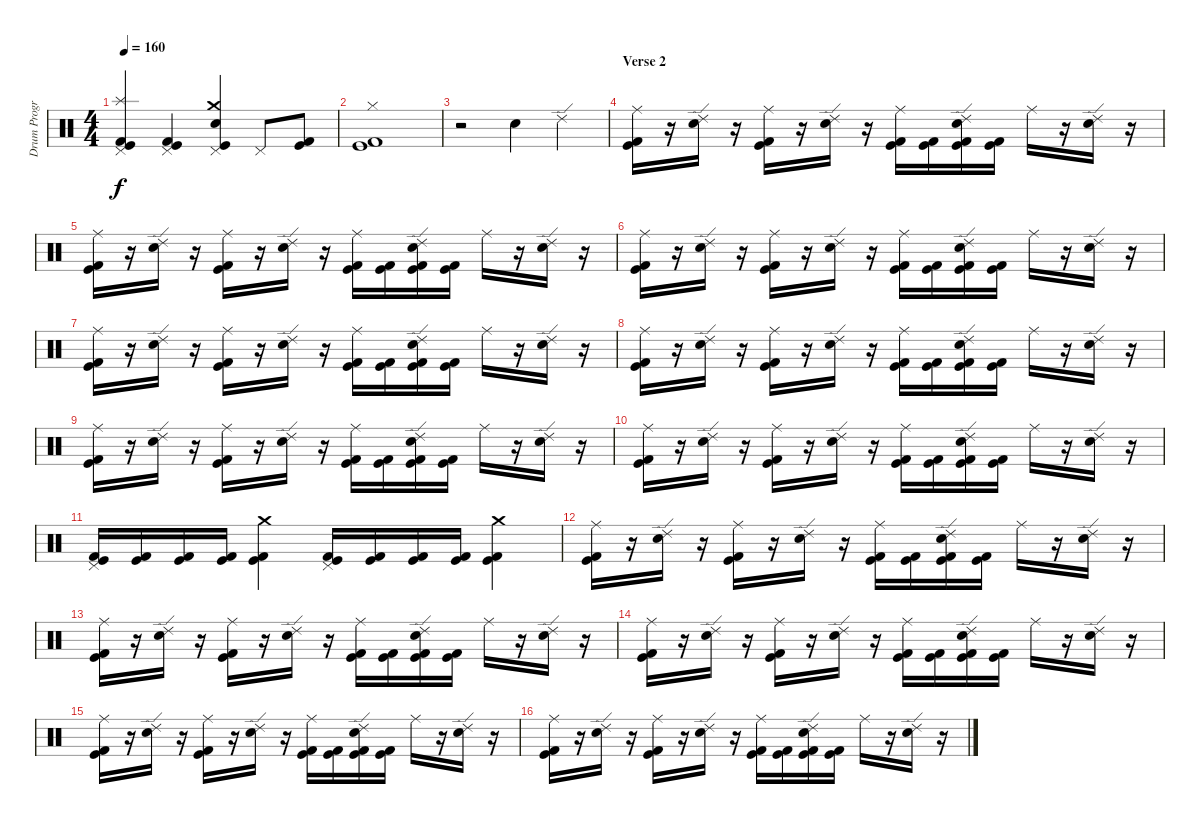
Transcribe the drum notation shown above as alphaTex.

\track ("Drum Program - BG" "Drum Progr") {instrument percussion}
\staff {score}
\articulation defaults
\ts (4 4)
\tempo 160
\clef neutral
\ks c
("Kick (hit) 2" "Kick (hit)" "Splash (hit)" "Pedal Hi-Hat (hit)").4{dy f} ("Kick (hit) 2" "Kick (hit)" "Pedal Hi-Hat (hit)").4 ("Crash medium (hit)" "Kick (hit)" "Electric Snare (hit)" "Pedal Hi-Hat (hit)").4 "Pedal Hi-Hat (hit)".8 ("Kick (hit)" "Kick (hit) 2").8 |
("Kick (hit) 2" "Kick (hit)" "Hi-Hat (closed)").1 |
r.2 "Electric Snare (hit)".4 "Ride (edge) 2".4 |
\section ("" "Verse 2")
("Kick (hit) 2" "Kick (hit)" "Ride (middle)").16 r.16 ("Electric Snare (hit)" "Ride (edge) 2").16 r.16 ("Kick (hit)" "Kick (hit) 2" "Ride (middle)").16 r.16 ("Electric Snare (hit)" "Ride (edge) 2").16 r.16 ("Kick (hit)" "Kick (hit) 2" "Ride (middle)").16 ("Kick (hit)" "Kick (hit) 2").16 ("Kick (hit)" "Kick (hit) 2" "Electric Snare (hit)" "Ride (edge) 2").16 ("Kick (hit)" "Kick (hit) 2").16 "Ride (middle)".16 r.16 ("Electric Snare (hit)" "Ride (edge) 2").16 r.16 |
("Kick (hit) 2" "Kick (hit)" "Ride (middle)").16 r.16 ("Electric Snare (hit)" "Ride (edge) 2").16 r.16 ("Kick (hit)" "Kick (hit) 2" "Ride (middle)").16 r.16 ("Electric Snare (hit)" "Ride (edge) 2").16 r.16 ("Kick (hit)" "Kick (hit) 2" "Ride (middle)").16 ("Kick (hit)" "Kick (hit) 2").16 ("Kick (hit)" "Kick (hit) 2" "Electric Snare (hit)" "Ride (edge) 2").16 ("Kick (hit)" "Kick (hit) 2").16 "Ride (middle)".16 r.16 ("Electric Snare (hit)" "Ride (edge) 2").16 r.16 |
("Kick (hit) 2" "Kick (hit)" "Ride (middle)").16 r.16 ("Electric Snare (hit)" "Ride (edge) 2").16 r.16 ("Kick (hit)" "Kick (hit) 2" "Ride (middle)").16 r.16 ("Electric Snare (hit)" "Ride (edge) 2").16 r.16 ("Kick (hit)" "Kick (hit) 2" "Ride (middle)").16 ("Kick (hit)" "Kick (hit) 2").16 ("Kick (hit)" "Kick (hit) 2" "Electric Snare (hit)" "Ride (edge) 2").16 ("Kick (hit)" "Kick (hit) 2").16 "Ride (middle)".16 r.16 ("Electric Snare (hit)" "Ride (edge) 2").16 r.16 |
("Kick (hit) 2" "Kick (hit)" "Ride (middle)").16 r.16 ("Electric Snare (hit)" "Ride (edge) 2").16 r.16 ("Kick (hit)" "Kick (hit) 2" "Ride (middle)").16 r.16 ("Electric Snare (hit)" "Ride (edge) 2").16 r.16 ("Kick (hit)" "Kick (hit) 2" "Ride (middle)").16 ("Kick (hit)" "Kick (hit) 2").16 ("Kick (hit)" "Kick (hit) 2" "Electric Snare (hit)" "Ride (edge) 2").16 ("Kick (hit)" "Kick (hit) 2").16 "Ride (middle)".16 r.16 ("Electric Snare (hit)" "Ride (edge) 2").16 r.16 |
("Kick (hit) 2" "Kick (hit)" "Ride (middle)").16 r.16 ("Electric Snare (hit)" "Ride (edge) 2").16 r.16 ("Kick (hit)" "Kick (hit) 2" "Ride (middle)").16 r.16 ("Electric Snare (hit)" "Ride (edge) 2").16 r.16 ("Kick (hit)" "Kick (hit) 2" "Ride (middle)").16 ("Kick (hit)" "Kick (hit) 2").16 ("Kick (hit)" "Kick (hit) 2" "Electric Snare (hit)" "Ride (edge) 2").16 ("Kick (hit)" "Kick (hit) 2").16 "Ride (middle)".16 r.16 ("Electric Snare (hit)" "Ride (edge) 2").16 r.16 |
("Kick (hit) 2" "Kick (hit)" "Ride (middle)").16 r.16 ("Electric Snare (hit)" "Ride (edge) 2").16 r.16 ("Kick (hit)" "Kick (hit) 2" "Ride (middle)").16 r.16 ("Electric Snare (hit)" "Ride (edge) 2").16 r.16 ("Kick (hit)" "Kick (hit) 2" "Ride (middle)").16 ("Kick (hit)" "Kick (hit) 2").16 ("Kick (hit)" "Kick (hit) 2" "Electric Snare (hit)" "Ride (edge) 2").16 ("Kick (hit)" "Kick (hit) 2").16 "Ride (middle)".16 r.16 ("Electric Snare (hit)" "Ride (edge) 2").16 r.16 |
("Kick (hit) 2" "Kick (hit)" "Ride (middle)").16 r.16 ("Electric Snare (hit)" "Ride (edge) 2").16 r.16 ("Kick (hit)" "Kick (hit) 2" "Ride (middle)").16 r.16 ("Electric Snare (hit)" "Ride (edge) 2").16 r.16 ("Kick (hit)" "Kick (hit) 2" "Ride (middle)").16 ("Kick (hit)" "Kick (hit) 2").16 ("Kick (hit)" "Kick (hit) 2" "Electric Snare (hit)" "Ride (edge) 2").16 ("Kick (hit)" "Kick (hit) 2").16 "Ride (middle)".16 r.16 ("Electric Snare (hit)" "Ride (edge) 2").16 r.16 |
("Kick (hit)" "Kick (hit) 2" "Pedal Hi-Hat (hit)").16 ("Kick (hit)" "Kick (hit) 2").16 ("Kick (hit)" "Kick (hit) 2").16 ("Kick (hit)" "Kick (hit) 2").16 ("Kick (hit)" "Kick (hit) 2" "Crash medium (hit)").4 ("Kick (hit)" "Kick (hit) 2" "Pedal Hi-Hat (hit)").16 ("Kick (hit)" "Kick (hit) 2").16 ("Kick (hit)" "Kick (hit) 2").16 ("Kick (hit)" "Kick (hit) 2").16 ("Kick (hit)" "Kick (hit) 2" "Crash medium (hit)").4 |
("Kick (hit) 2" "Kick (hit)" "Ride (middle)").16 r.16 ("Electric Snare (hit)" "Ride (edge) 2").16 r.16 ("Kick (hit)" "Kick (hit) 2" "Ride (middle)").16 r.16 ("Electric Snare (hit)" "Ride (edge) 2").16 r.16 ("Kick (hit)" "Kick (hit) 2" "Ride (middle)").16 ("Kick (hit)" "Kick (hit) 2").16 ("Kick (hit)" "Kick (hit) 2" "Electric Snare (hit)" "Ride (edge) 2").16 ("Kick (hit)" "Kick (hit) 2").16 "Ride (middle)".16 r.16 ("Electric Snare (hit)" "Ride (edge) 2").16 r.16 |
("Kick (hit) 2" "Kick (hit)" "Ride (middle)").16 r.16 ("Electric Snare (hit)" "Ride (edge) 2").16 r.16 ("Kick (hit)" "Kick (hit) 2" "Ride (middle)").16 r.16 ("Electric Snare (hit)" "Ride (edge) 2").16 r.16 ("Kick (hit)" "Kick (hit) 2" "Ride (middle)").16 ("Kick (hit)" "Kick (hit) 2").16 ("Kick (hit)" "Kick (hit) 2" "Electric Snare (hit)" "Ride (edge) 2").16 ("Kick (hit)" "Kick (hit) 2").16 "Ride (middle)".16 r.16 ("Electric Snare (hit)" "Ride (edge) 2").16 r.16 |
("Kick (hit) 2" "Kick (hit)" "Ride (middle)").16 r.16 ("Electric Snare (hit)" "Ride (edge) 2").16 r.16 ("Kick (hit)" "Kick (hit) 2" "Ride (middle)").16 r.16 ("Electric Snare (hit)" "Ride (edge) 2").16 r.16 ("Kick (hit)" "Kick (hit) 2" "Ride (middle)").16 ("Kick (hit)" "Kick (hit) 2").16 ("Kick (hit)" "Kick (hit) 2" "Electric Snare (hit)" "Ride (edge) 2").16 ("Kick (hit)" "Kick (hit) 2").16 "Ride (middle)".16 r.16 ("Electric Snare (hit)" "Ride (edge) 2").16 r.16 |
("Kick (hit) 2" "Kick (hit)" "Ride (middle)").16 r.16 ("Electric Snare (hit)" "Ride (edge) 2").16 r.16 ("Kick (hit)" "Kick (hit) 2" "Ride (middle)").16 r.16 ("Electric Snare (hit)" "Ride (edge) 2").16 r.16 ("Kick (hit)" "Kick (hit) 2" "Ride (middle)").16 ("Kick (hit)" "Kick (hit) 2").16 ("Kick (hit)" "Kick (hit) 2" "Electric Snare (hit)" "Ride (edge) 2").16 ("Kick (hit)" "Kick (hit) 2").16 "Ride (middle)".16 r.16 ("Electric Snare (hit)" "Ride (edge) 2").16 r.16 |
("Kick (hit) 2" "Kick (hit)" "Ride (middle)").16 r.16 ("Electric Snare (hit)" "Ride (edge) 2").16 r.16 ("Kick (hit)" "Kick (hit) 2" "Ride (middle)").16 r.16 ("Electric Snare (hit)" "Ride (edge) 2").16 r.16 ("Kick (hit)" "Kick (hit) 2" "Ride (middle)").16 ("Kick (hit)" "Kick (hit) 2").16 ("Kick (hit)" "Kick (hit) 2" "Electric Snare (hit)" "Ride (edge) 2").16 ("Kick (hit)" "Kick (hit) 2").16 "Ride (middle)".16 r.16 ("Electric Snare (hit)" "Ride (edge) 2").16 r.16
